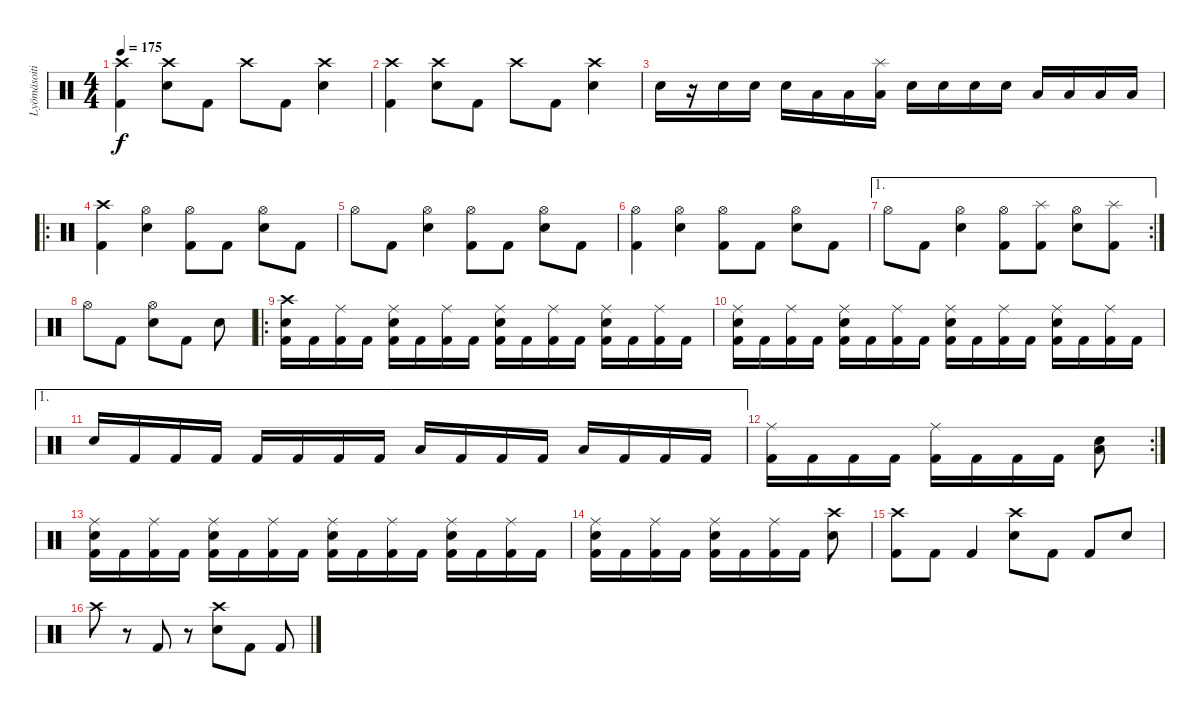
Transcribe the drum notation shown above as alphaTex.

\track ("Lyömäsoitin" "Lyömäsoiti") {instrument percussion}
\staff {score}
\articulation defaults
\ts (4 4)
\tempo 175
\clef neutral
\ks c
("Kick (hit) 2" "Crash high (hit)").4{dy f} ("Electric Snare (hit)" "Crash high (hit)").8 "Kick (hit) 2".8 "Crash high (hit)".8 "Kick (hit) 2".8 ("Electric Snare (hit)" "Crash high (hit)").4 |
("Kick (hit) 2" "Crash high (hit)").4 ("Electric Snare (hit)" "Crash high (hit)").8 "Kick (hit) 2".8 "Crash high (hit)".8 "Kick (hit) 2".8 ("Electric Snare (hit)" "Crash high (hit)").4 |
"Electric Snare (hit)".16 r.16 "Electric Snare (hit)".16 "Electric Snare (hit)".16 "Electric Snare (hit)".16 "Low Tom (hit)".16 "Low Tom (hit)".16 ("Low Tom (hit)" "Splash (hit)").16 "Electric Snare (hit)".16 "Electric Snare (hit)".16 "Electric Snare (hit)".16 "Electric Snare (hit)".16 "Low Tom (hit)".16 "Low Tom (hit)".16 "Low Tom (hit)".16 "Low Tom (hit)".16 |
\ro
("Kick (hit) 2" "Crash high (hit)").4 ("Electric Snare (hit)" "Hi-Hat (open)").4 ("Kick (hit) 2" "Hi-Hat (open)").8 "Kick (hit) 2".8 ("Electric Snare (hit)" "Hi-Hat (open)").8 "Kick (hit) 2".8 |
"Hi-Hat (open)".8 "Kick (hit) 2".8 ("Electric Snare (hit)" "Hi-Hat (open)").4 ("Kick (hit) 2" "Hi-Hat (open)").8 "Kick (hit) 2".8 ("Electric Snare (hit)" "Hi-Hat (open)").8 "Kick (hit) 2".8 |
("Kick (hit) 2" "Hi-Hat (open)").4 ("Electric Snare (hit)" "Hi-Hat (open)").4 ("Kick (hit) 2" "Hi-Hat (open)").8 "Kick (hit) 2".8 ("Electric Snare (hit)" "Hi-Hat (open)").8 "Kick (hit) 2".8 |
\ae 1
\rc 2 "Hi-Hat (open)".8 "Kick (hit) 2".8
("Electric Snare (hit)" "Hi-Hat (open)").4 ("Kick (hit) 2" "Hi-Hat (open)").8 ("Kick (hit) 2" "Splash (hit)").8 ("Electric Snare (hit)" "Hi-Hat (open)").8 ("Kick (hit) 2" "Splash (hit)").8 |
"Hi-Hat (open)".8 "Kick (hit) 2".8 ("Electric Snare (hit)" "Hi-Hat (open)").8 "Kick (hit) 2".8 "Electric Snare (hit)".8 |
\ro
("Kick (hit) 2" "Electric Snare (hit)" "Crash high (hit)").16 "Kick (hit) 2".16 ("Kick (hit) 2" "Ride (middle)").16 "Kick (hit) 2".16 ("Kick (hit) 2" "Electric Snare (hit)" "Ride (middle)").16 "Kick (hit) 2".16 ("Kick (hit) 2" "Ride (middle)").16 "Kick (hit) 2".16 ("Kick (hit) 2" "Electric Snare (hit)" "Ride (middle)").16 "Kick (hit) 2".16 ("Kick (hit) 2" "Ride (middle)").16 "Kick (hit) 2".16 ("Kick (hit) 2" "Electric Snare (hit)" "Ride (middle)").16 "Kick (hit) 2".16 ("Kick (hit) 2" "Ride (middle)").16 "Kick (hit) 2".16 |
("Kick (hit) 2" "Electric Snare (hit)" "Ride (middle)").16 "Kick (hit) 2".16 ("Kick (hit) 2" "Ride (middle)").16 "Kick (hit) 2".16 ("Kick (hit) 2" "Electric Snare (hit)" "Ride (middle)").16 "Kick (hit) 2".16 ("Kick (hit) 2" "Ride (middle)").16 "Kick (hit) 2".16 ("Kick (hit) 2" "Electric Snare (hit)" "Ride (middle)").16 "Kick (hit) 2".16 ("Kick (hit) 2" "Ride (middle)").16 "Kick (hit) 2".16 ("Kick (hit) 2" "Electric Snare (hit)" "Ride (middle)").16 "Kick (hit) 2".16 ("Kick (hit) 2" "Ride (middle)").16 "Kick (hit) 2".16 |
\ae 1 "Electric Snare (hit)".16 "Kick (hit) 2".16 "Kick (hit) 2".16 "Kick (hit) 2".16 "Kick (hit) 2".16 "Kick (hit) 2".16 "Kick (hit) 2".16 "Kick (hit) 2".16 "Low Tom (hit)".16 "Kick (hit) 2".16 "Kick (hit) 2".16 "Kick (hit) 2".16 "Low Floor Tom (hit)".16 "Kick (hit) 2".16 "Kick (hit) 2".16 "Kick (hit) 2".16
|
\rc 2
("Kick (hit) 2" "Ride (middle)").16 "Kick (hit) 2".16 "Kick (hit) 2".16 "Kick (hit) 2".16 ("Kick (hit) 2" "Ride (middle)").16 "Kick (hit) 2".16 "Kick (hit) 2".16 "Kick (hit) 2".16 ("Electric Snare (hit)" "Low Floor Tom (hit)").8 |
("Kick (hit) 2" "Electric Snare (hit)" "Ride (middle)").16 "Kick (hit) 2".16 ("Kick (hit) 2" "Ride (middle)").16 "Kick (hit) 2".16 ("Kick (hit) 2" "Electric Snare (hit)" "Ride (middle)").16 "Kick (hit) 2".16 ("Kick (hit) 2" "Ride (middle)").16 "Kick (hit) 2".16 ("Kick (hit) 2" "Electric Snare (hit)" "Ride (middle)").16 "Kick (hit) 2".16 ("Kick (hit) 2" "Ride (middle)").16 "Kick (hit) 2".16 ("Kick (hit) 2" "Electric Snare (hit)" "Ride (middle)").16 "Kick (hit) 2".16 ("Kick (hit) 2" "Ride (middle)").16 "Kick (hit) 2".16 |
("Kick (hit) 2" "Electric Snare (hit)" "Ride (middle)").16 "Kick (hit) 2".16 ("Kick (hit) 2" "Ride (middle)").16 "Kick (hit) 2".16 ("Kick (hit) 2" "Electric Snare (hit)" "Ride (middle)").16 "Kick (hit) 2".16 ("Kick (hit) 2" "Ride (middle)").16 "Kick (hit) 2".16 ("Electric Snare (hit)" "Crash high (hit)").8 |
("Kick (hit) 2" "Crash high (hit)").8 "Kick (hit) 2".8 "Kick (hit) 2".4 ("Electric Snare (hit)" "Crash high (hit)").8 "Kick (hit) 2".8 "Kick (hit) 2".8 "Electric Snare (hit)".8 |
"Crash high (hit)".8 r.8 "Kick (hit) 2".8 r.8 ("Electric Snare (hit)" "Crash high (hit)").8 "Kick (hit) 2".8 "Kick (hit) 2".8
